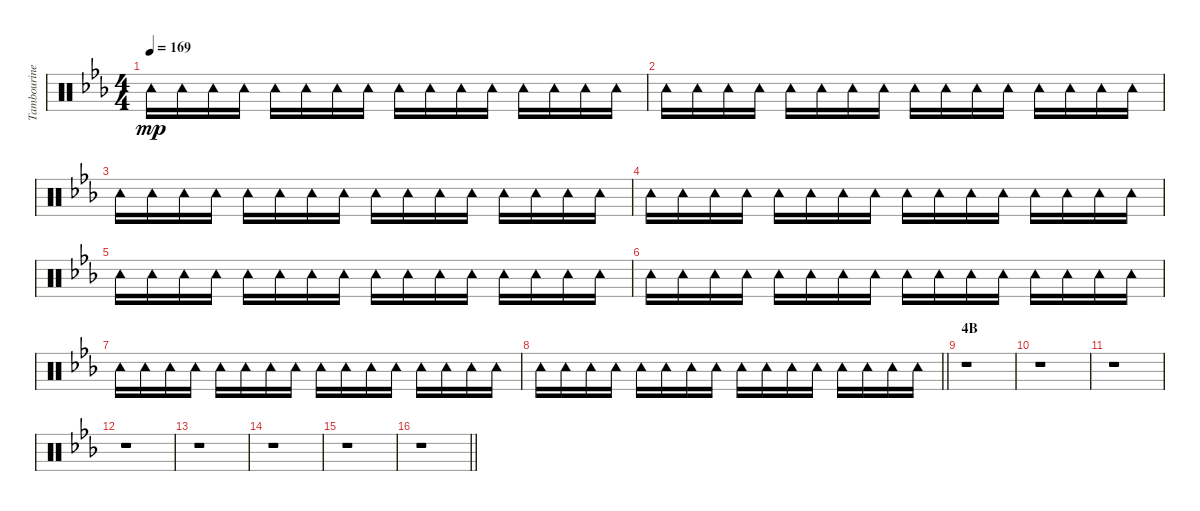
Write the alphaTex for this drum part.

\track ("Tambourine" "Tambourine") {instrument percussion}
\staff {score}
\articulation defaults
\ts (4 4)
\tempo 169
\clef neutral
\ks eb "Tambourine (hit)".16{dy mp} "Tambourine (hit)".16 "Tambourine (hit)".16 "Tambourine (hit)".16 "Tambourine (hit)".16 "Tambourine (hit)".16 "Tambourine (hit)".16 "Tambourine (hit)".16 "Tambourine (hit)".16 "Tambourine (hit)".16 "Tambourine (hit)".16 "Tambourine (hit)".16 "Tambourine (hit)".16 "Tambourine (hit)".16 "Tambourine (hit)".16 "Tambourine (hit)".16
|
"Tambourine (hit)".16 "Tambourine (hit)".16 "Tambourine (hit)".16 "Tambourine (hit)".16 "Tambourine (hit)".16 "Tambourine (hit)".16 "Tambourine (hit)".16 "Tambourine (hit)".16 "Tambourine (hit)".16 "Tambourine (hit)".16 "Tambourine (hit)".16 "Tambourine (hit)".16 "Tambourine (hit)".16 "Tambourine (hit)".16 "Tambourine (hit)".16 "Tambourine (hit)".16 |
"Tambourine (hit)".16 "Tambourine (hit)".16 "Tambourine (hit)".16 "Tambourine (hit)".16 "Tambourine (hit)".16 "Tambourine (hit)".16 "Tambourine (hit)".16 "Tambourine (hit)".16 "Tambourine (hit)".16 "Tambourine (hit)".16 "Tambourine (hit)".16 "Tambourine (hit)".16 "Tambourine (hit)".16 "Tambourine (hit)".16 "Tambourine (hit)".16 "Tambourine (hit)".16 |
"Tambourine (hit)".16 "Tambourine (hit)".16 "Tambourine (hit)".16 "Tambourine (hit)".16 "Tambourine (hit)".16 "Tambourine (hit)".16 "Tambourine (hit)".16 "Tambourine (hit)".16 "Tambourine (hit)".16 "Tambourine (hit)".16 "Tambourine (hit)".16 "Tambourine (hit)".16 "Tambourine (hit)".16 "Tambourine (hit)".16 "Tambourine (hit)".16 "Tambourine (hit)".16 |
"Tambourine (hit)".16 "Tambourine (hit)".16 "Tambourine (hit)".16 "Tambourine (hit)".16 "Tambourine (hit)".16 "Tambourine (hit)".16 "Tambourine (hit)".16 "Tambourine (hit)".16 "Tambourine (hit)".16 "Tambourine (hit)".16 "Tambourine (hit)".16 "Tambourine (hit)".16 "Tambourine (hit)".16 "Tambourine (hit)".16 "Tambourine (hit)".16 "Tambourine (hit)".16 |
"Tambourine (hit)".16 "Tambourine (hit)".16 "Tambourine (hit)".16 "Tambourine (hit)".16 "Tambourine (hit)".16 "Tambourine (hit)".16 "Tambourine (hit)".16 "Tambourine (hit)".16 "Tambourine (hit)".16 "Tambourine (hit)".16 "Tambourine (hit)".16 "Tambourine (hit)".16 "Tambourine (hit)".16 "Tambourine (hit)".16 "Tambourine (hit)".16 "Tambourine (hit)".16 |
"Tambourine (hit)".16 "Tambourine (hit)".16 "Tambourine (hit)".16 "Tambourine (hit)".16 "Tambourine (hit)".16 "Tambourine (hit)".16 "Tambourine (hit)".16 "Tambourine (hit)".16 "Tambourine (hit)".16 "Tambourine (hit)".16 "Tambourine (hit)".16 "Tambourine (hit)".16 "Tambourine (hit)".16 "Tambourine (hit)".16 "Tambourine (hit)".16 "Tambourine (hit)".16 |
\barLineRight lightlight "Tambourine (hit)".16 "Tambourine (hit)".16 "Tambourine (hit)".16 "Tambourine (hit)".16 "Tambourine (hit)".16 "Tambourine (hit)".16 "Tambourine (hit)".16 "Tambourine (hit)".16 "Tambourine (hit)".16 "Tambourine (hit)".16 "Tambourine (hit)".16 "Tambourine (hit)".16 "Tambourine (hit)".16 "Tambourine (hit)".16 "Tambourine (hit)".16 "Tambourine (hit)".16
|
\section ("" "4B")
r.1 |
r.1 |
r.1 |
r.1 |
r.1 |
r.1 |
r.1 |
\barLineRight lightlight
r.1
